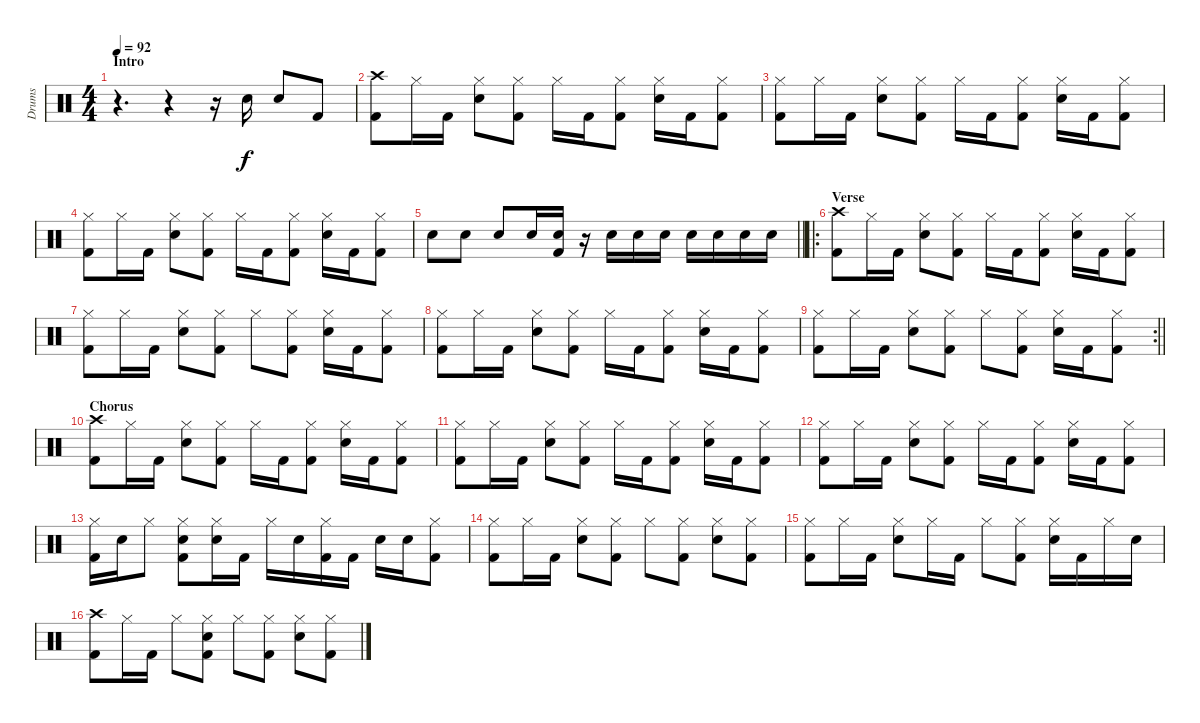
\track ("Drums" "Drums") {instrument percussion}
\staff {score}
\articulation defaults
\ts (4 4)
\section ("" "Intro")
\tempo 92
\clef neutral
\ks c
r.4{d dy f} r.4 r.16 "Electric Snare (hit)".16 "Electric Snare (hit)".8 "Kick (hit) 2".8 |
("Crash high (hit)" "Kick (hit) 2").8 "Hi-Hat (closed)".16 "Kick (hit) 2".16 ("Hi-Hat (closed)" "Electric Snare (hit)").8 ("Hi-Hat (closed)" "Kick (hit) 2").8 "Hi-Hat (closed)".16 "Kick (hit) 2".16 ("Hi-Hat (closed)" "Kick (hit) 2").8 ("Hi-Hat (closed)" "Electric Snare (hit)").16 "Kick (hit) 2".16 ("Hi-Hat (closed)" "Kick (hit) 2").8 |
("Hi-Hat (closed)" "Kick (hit) 2").8 "Hi-Hat (closed)".16 "Kick (hit) 2".16 ("Hi-Hat (closed)" "Electric Snare (hit)").8 ("Hi-Hat (closed)" "Kick (hit) 2").8 "Hi-Hat (closed)".16 "Kick (hit) 2".16 ("Hi-Hat (closed)" "Kick (hit) 2").8 ("Hi-Hat (closed)" "Electric Snare (hit)").16 "Kick (hit) 2".16 ("Hi-Hat (closed)" "Kick (hit) 2").8 |
("Hi-Hat (closed)" "Kick (hit) 2").8 "Hi-Hat (closed)".16 "Kick (hit) 2".16 ("Hi-Hat (closed)" "Electric Snare (hit)").8 ("Hi-Hat (closed)" "Kick (hit) 2").8 "Hi-Hat (closed)".16 "Kick (hit) 2".16 ("Hi-Hat (closed)" "Kick (hit) 2").8 ("Hi-Hat (closed)" "Electric Snare (hit)").16 "Kick (hit) 2".16 ("Hi-Hat (closed)" "Kick (hit) 2").8 |
\barLineRight lightlight "Electric Snare (hit)".8 "Electric Snare (hit)".8 "Electric Snare (hit)".8 "Electric Snare (hit)".16
("Electric Snare (hit)" "Kick (hit) 2").16 r.16 "Electric Snare (hit)".16 "Electric Snare (hit)".16 "Electric Snare (hit)".16 "Electric Snare (hit)".16 "Electric Snare (hit)".16 "Electric Snare (hit)".16 "Electric Snare (hit)".16 |
\ro
\section ("" "Verse ")
("Crash high (hit)" "Kick (hit) 2").8 "Hi-Hat (closed)".16 "Kick (hit) 2".16 ("Hi-Hat (closed)" "Electric Snare (hit)").8 ("Hi-Hat (closed)" "Kick (hit) 2").8 "Hi-Hat (closed)".16 "Kick (hit) 2".16 ("Hi-Hat (closed)" "Kick (hit) 2").8 ("Hi-Hat (closed)" "Electric Snare (hit)").16 "Kick (hit) 2".16 ("Hi-Hat (closed)" "Kick (hit) 2").8 |
("Hi-Hat (closed)" "Kick (hit) 2").8 "Hi-Hat (closed)".16 "Kick (hit) 2".16 ("Hi-Hat (closed)" "Electric Snare (hit)").8 ("Hi-Hat (closed)" "Kick (hit) 2").8 "Hi-Hat (closed)".8 ("Hi-Hat (closed)" "Kick (hit) 2").8 ("Hi-Hat (closed)" "Electric Snare (hit)").16 "Kick (hit) 2".16 ("Hi-Hat (closed)" "Kick (hit) 2").8 |
("Hi-Hat (closed)" "Kick (hit) 2").8 "Hi-Hat (closed)".16 "Kick (hit) 2".16 ("Hi-Hat (closed)" "Electric Snare (hit)").8 ("Hi-Hat (closed)" "Kick (hit) 2").8 "Hi-Hat (closed)".16 "Kick (hit) 2".16 ("Hi-Hat (closed)" "Kick (hit) 2").8 ("Hi-Hat (closed)" "Electric Snare (hit)").16 "Kick (hit) 2".16 ("Hi-Hat (closed)" "Kick (hit) 2").8 |
\rc 2
\barLineRight lightlight
("Hi-Hat (closed)" "Kick (hit) 2").8 "Hi-Hat (closed)".16 "Kick (hit) 2".16 ("Hi-Hat (closed)" "Electric Snare (hit)").8 ("Hi-Hat (closed)" "Kick (hit) 2").8 "Hi-Hat (closed)".8 ("Hi-Hat (closed)" "Kick (hit) 2").8 ("Hi-Hat (closed)" "Electric Snare (hit)").16 "Kick (hit) 2".16 ("Hi-Hat (closed)" "Kick (hit) 2").8 |
\section ("" "Chorus ")
("Crash high (hit)" "Kick (hit) 2").8 "Hi-Hat (closed)".16 "Kick (hit) 2".16 ("Hi-Hat (closed)" "Electric Snare (hit)").8 ("Hi-Hat (closed)" "Kick (hit) 2").8 "Hi-Hat (closed)".16 "Kick (hit) 2".16 ("Hi-Hat (closed)" "Kick (hit) 2").8 ("Hi-Hat (closed)" "Electric Snare (hit)").16 "Kick (hit) 2".16 ("Hi-Hat (closed)" "Kick (hit) 2").8 |
("Hi-Hat (closed)" "Kick (hit) 2").8 "Hi-Hat (closed)".16 "Kick (hit) 2".16 ("Hi-Hat (closed)" "Electric Snare (hit)").8 ("Hi-Hat (closed)" "Kick (hit) 2").8 "Hi-Hat (closed)".16 "Kick (hit) 2".16 ("Hi-Hat (closed)" "Kick (hit) 2").8 ("Hi-Hat (closed)" "Electric Snare (hit)").16 "Kick (hit) 2".16 ("Hi-Hat (closed)" "Kick (hit) 2").8 |
("Hi-Hat (closed)" "Kick (hit) 2").8 "Hi-Hat (closed)".16 "Kick (hit) 2".16 ("Hi-Hat (closed)" "Electric Snare (hit)").8 ("Hi-Hat (closed)" "Kick (hit) 2").8 "Hi-Hat (closed)".16 "Kick (hit) 2".16 ("Hi-Hat (closed)" "Kick (hit) 2").8 ("Hi-Hat (closed)" "Electric Snare (hit)").16 "Kick (hit) 2".16 ("Hi-Hat (closed)" "Kick (hit) 2").8 |
("Hi-Hat (closed)" "Kick (hit) 2").16 "Electric Snare (hit)".16 "Hi-Hat (closed)".8 ("Hi-Hat (closed)" "Electric Snare (hit)" "Kick (hit) 2").8 ("Hi-Hat (closed)" "Electric Snare (hit)").16 "Kick (hit) 2".16 "Hi-Hat (closed)".16 "Electric Snare (hit)".16 ("Hi-Hat (closed)" "Kick (hit) 2").16 "Kick (hit) 2".16 "Electric Snare (hit)".16 "Electric Snare (hit)".16 ("Hi-Hat (closed)" "Kick (hit) 2").8 |
("Hi-Hat (closed)" "Kick (hit) 2").8 "Hi-Hat (closed)".16 "Kick (hit) 2".16 ("Hi-Hat (closed)" "Electric Snare (hit)").8 ("Hi-Hat (closed)" "Kick (hit) 2").8 "Hi-Hat (closed)".8 ("Hi-Hat (closed)" "Kick (hit) 2").8 ("Hi-Hat (closed)" "Electric Snare (hit)").8 ("Hi-Hat (closed)" "Kick (hit) 2").8 |
("Hi-Hat (closed)" "Kick (hit) 2").8 "Hi-Hat (closed)".16 "Kick (hit) 2".16 ("Hi-Hat (closed)" "Electric Snare (hit)").8 "Hi-Hat (closed)".16 "Kick (hit) 2".16 "Hi-Hat (closed)".8 ("Hi-Hat (closed)" "Kick (hit) 2").8 ("Hi-Hat (closed)" "Electric Snare (hit)").16 "Kick (hit) 2".16 "Hi-Hat (closed)".16 "Electric Snare (hit)".16 |
("Crash high (hit)" "Kick (hit) 2").8 "Hi-Hat (closed)".16 "Kick (hit) 2".16 "Hi-Hat (closed)".8 ("Hi-Hat (closed)" "Electric Snare (hit)" "Kick (hit) 2").8 "Hi-Hat (closed)".8 ("Hi-Hat (closed)" "Kick (hit) 2").8 ("Hi-Hat (closed)" "Electric Snare (hit)").8 ("Hi-Hat (closed)" "Kick (hit) 2").8
